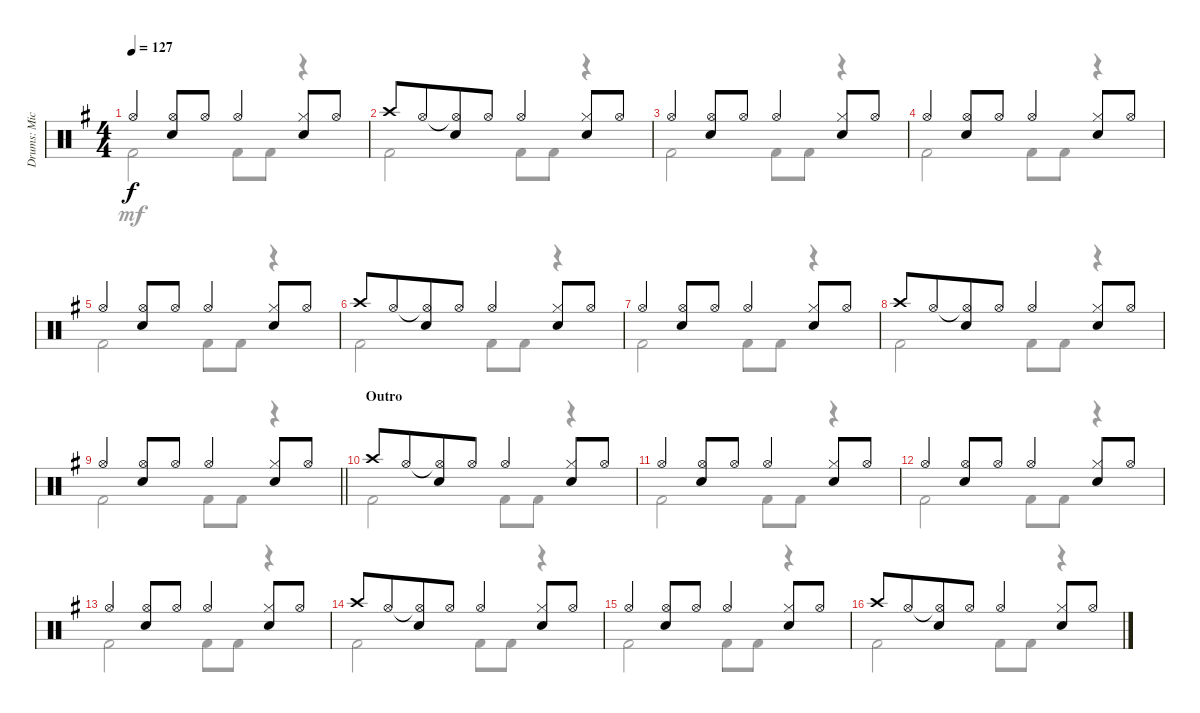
\track ("Drums: Mick" "Drums: Mic") {instrument percussion}
\staff {score}
\articulation defaults
\voice
\ts (4 4)
\tempo 127
\clef neutral
\ks g "Hi-Hat (open)".4{dy f beam merge}
("Hi-Hat (open)" "Snare (hit) 2").8 "Hi-Hat (open)".8 "Hi-Hat (open)".4{beam merge} ("Hi-Hat (closed)" "Snare (hit) 2").8 "Hi-Hat (open)".8 |
"Crash high (hit)".8 "Hi-Hat (open)".8{beam merge} ("Hi-Hat (open)"{t} "Snare (hit) 2").8 "Hi-Hat (open)".8 "Hi-Hat (open)".4{beam merge} ("Hi-Hat (closed)" "Snare (hit) 2").8 "Hi-Hat (open)".8 |
"Hi-Hat (open)".4{beam merge} ("Hi-Hat (open)" "Snare (hit) 2").8 "Hi-Hat (open)".8 "Hi-Hat (open)".4{beam merge} ("Hi-Hat (closed)" "Snare (hit) 2").8 "Hi-Hat (open)".8 |
"Hi-Hat (open)".4{beam merge} ("Hi-Hat (open)" "Snare (hit) 2").8 "Hi-Hat (open)".8 "Hi-Hat (open)".4{beam merge} ("Hi-Hat (closed)" "Snare (hit) 2").8 "Hi-Hat (open)".8 |
"Hi-Hat (open)".4{beam merge} ("Hi-Hat (open)" "Snare (hit) 2").8 "Hi-Hat (open)".8 "Hi-Hat (open)".4{beam merge} ("Hi-Hat (closed)" "Snare (hit) 2").8 "Hi-Hat (open)".8 |
"Crash high (hit)".8 "Hi-Hat (open)".8{beam merge} ("Hi-Hat (open)"{t} "Snare (hit) 2").8 "Hi-Hat (open)".8 "Hi-Hat (open)".4{beam merge} ("Hi-Hat (closed)" "Snare (hit) 2").8 "Hi-Hat (open)".8 |
"Hi-Hat (open)".4{beam merge} ("Hi-Hat (open)" "Snare (hit) 2").8 "Hi-Hat (open)".8 "Hi-Hat (open)".4{beam merge} ("Hi-Hat (closed)" "Snare (hit) 2").8 "Hi-Hat (open)".8 |
"Crash high (hit)".8 "Hi-Hat (open)".8{beam merge} ("Hi-Hat (open)"{t} "Snare (hit) 2").8 "Hi-Hat (open)".8 "Hi-Hat (open)".4{beam merge} ("Hi-Hat (closed)" "Snare (hit) 2").8 "Hi-Hat (open)".8 |
\barLineRight lightlight "Hi-Hat (open)".4{beam merge}
("Hi-Hat (open)" "Snare (hit) 2").8 "Hi-Hat (open)".8 "Hi-Hat (open)".4{beam merge} ("Hi-Hat (closed)" "Snare (hit) 2").8 "Hi-Hat (open)".8 |
\section ("" "Outro")
"Crash high (hit)".8 "Hi-Hat (open)".8{beam merge} ("Hi-Hat (open)"{t} "Snare (hit) 2").8 "Hi-Hat (open)".8 "Hi-Hat (open)".4{beam merge} ("Hi-Hat (closed)" "Snare (hit) 2").8 "Hi-Hat (open)".8 |
"Hi-Hat (open)".4{beam merge} ("Hi-Hat (open)" "Snare (hit) 2").8 "Hi-Hat (open)".8 "Hi-Hat (open)".4{beam merge} ("Hi-Hat (closed)" "Snare (hit) 2").8 "Hi-Hat (open)".8 |
"Hi-Hat (open)".4{beam merge} ("Hi-Hat (open)" "Snare (hit) 2").8 "Hi-Hat (open)".8 "Hi-Hat (open)".4{beam merge} ("Hi-Hat (closed)" "Snare (hit) 2").8 "Hi-Hat (open)".8 |
"Hi-Hat (open)".4{beam merge} ("Hi-Hat (open)" "Snare (hit) 2").8 "Hi-Hat (open)".8 "Hi-Hat (open)".4{beam merge} ("Hi-Hat (closed)" "Snare (hit) 2").8 "Hi-Hat (open)".8 |
"Crash high (hit)".8 "Hi-Hat (open)".8{beam merge} ("Hi-Hat (open)"{t} "Snare (hit) 2").8 "Hi-Hat (open)".8 "Hi-Hat (open)".4{beam merge} ("Hi-Hat (closed)" "Snare (hit) 2").8 "Hi-Hat (open)".8 |
"Hi-Hat (open)".4{beam merge} ("Hi-Hat (open)" "Snare (hit) 2").8 "Hi-Hat (open)".8 "Hi-Hat (open)".4{beam merge} ("Hi-Hat (closed)" "Snare (hit) 2").8 "Hi-Hat (open)".8 |
"Crash high (hit)".8 "Hi-Hat (open)".8{beam merge} ("Hi-Hat (open)"{t} "Snare (hit) 2").8 "Hi-Hat (open)".8 "Hi-Hat (open)".4{beam merge} ("Hi-Hat (closed)" "Snare (hit) 2").8 "Hi-Hat (open)".8
\voice
\clef neutral
\ottava regular
\simile none
\ks g "Kick (hit) 2".2{dy mf} "Kick (hit) 2".8 "Kick (hit) 2".8
r.4 |
"Kick (hit) 2".2 "Kick (hit) 2".8 "Kick (hit) 2".8 r.4 |
"Kick (hit) 2".2 "Kick (hit) 2".8 "Kick (hit) 2".8 r.4 |
"Kick (hit) 2".2 "Kick (hit) 2".8 "Kick (hit) 2".8 r.4 |
"Kick (hit) 2".2 "Kick (hit) 2".8 "Kick (hit) 2".8 r.4 |
"Kick (hit) 2".2 "Kick (hit) 2".8 "Kick (hit) 2".8 r.4 |
"Kick (hit) 2".2 "Kick (hit) 2".8 "Kick (hit) 2".8 r.4 |
"Kick (hit) 2".2 "Kick (hit) 2".8 "Kick (hit) 2".8 r.4 |
\barLineRight lightlight "Kick (hit) 2".2 "Kick (hit) 2".8 "Kick (hit) 2".8
r.4 |
"Kick (hit) 2".2 "Kick (hit) 2".8 "Kick (hit) 2".8 r.4 |
"Kick (hit) 2".2 "Kick (hit) 2".8 "Kick (hit) 2".8 r.4 |
"Kick (hit) 2".2 "Kick (hit) 2".8 "Kick (hit) 2".8 r.4 |
"Kick (hit) 2".2 "Kick (hit) 2".8 "Kick (hit) 2".8 r.4 |
"Kick (hit) 2".2 "Kick (hit) 2".8 "Kick (hit) 2".8 r.4 |
"Kick (hit) 2".2 "Kick (hit) 2".8 "Kick (hit) 2".8 r.4 |
"Kick (hit) 2".2 "Kick (hit) 2".8 "Kick (hit) 2".8 r.4
